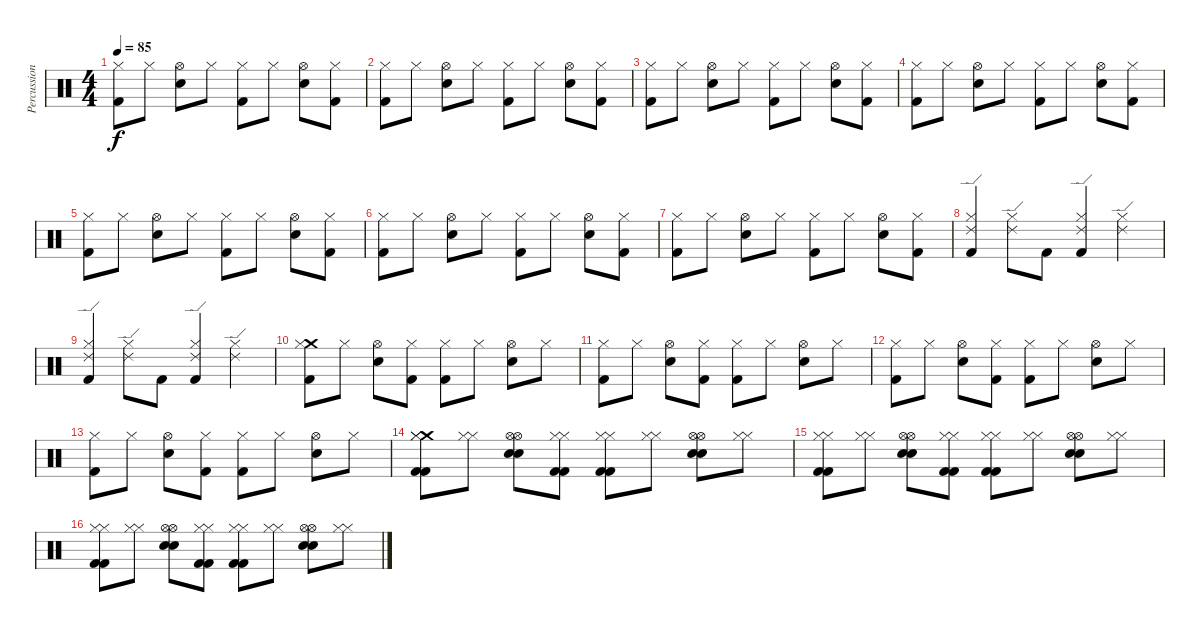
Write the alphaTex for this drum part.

\track ("Percussion" "Percussion") {instrument percussion}
\staff {score}
\articulation defaults
\ts (4 4)
\tempo 85
\clef neutral
\ks c
("Kick (hit) 2" "Hi-Hat (closed)").8{dy f} "Hi-Hat (closed)".8 ("Hi-Hat (open)" "Electric Snare (hit)").8 "Hi-Hat (closed)".8 ("Kick (hit) 2" "Hi-Hat (closed)").8 "Hi-Hat (closed)".8 ("Hi-Hat (open)" "Electric Snare (hit)").8 ("Kick (hit) 2" "Hi-Hat (closed)").8 |
("Kick (hit) 2" "Hi-Hat (closed)").8 "Hi-Hat (closed)".8 ("Hi-Hat (open)" "Electric Snare (hit)").8 "Hi-Hat (closed)".8 ("Kick (hit) 2" "Hi-Hat (closed)").8 "Hi-Hat (closed)".8 ("Hi-Hat (open)" "Electric Snare (hit)").8 ("Kick (hit) 2" "Hi-Hat (closed)").8 |
("Kick (hit) 2" "Hi-Hat (closed)").8 "Hi-Hat (closed)".8 ("Hi-Hat (open)" "Electric Snare (hit)").8 "Hi-Hat (closed)".8 ("Kick (hit) 2" "Hi-Hat (closed)").8 "Hi-Hat (closed)".8 ("Hi-Hat (open)" "Electric Snare (hit)").8 ("Kick (hit) 2" "Hi-Hat (closed)").8 |
("Kick (hit) 2" "Hi-Hat (closed)").8 "Hi-Hat (closed)".8 ("Hi-Hat (open)" "Electric Snare (hit)").8 "Hi-Hat (closed)".8 ("Kick (hit) 2" "Hi-Hat (closed)").8 "Hi-Hat (closed)".8 ("Hi-Hat (open)" "Electric Snare (hit)").8 ("Kick (hit) 2" "Hi-Hat (closed)").8 |
("Kick (hit) 2" "Hi-Hat (closed)").8 "Hi-Hat (closed)".8 ("Hi-Hat (open)" "Electric Snare (hit)").8 "Hi-Hat (closed)".8 ("Kick (hit) 2" "Hi-Hat (closed)").8 "Hi-Hat (closed)".8 ("Hi-Hat (open)" "Electric Snare (hit)").8 ("Kick (hit) 2" "Hi-Hat (closed)").8 |
("Kick (hit) 2" "Hi-Hat (closed)").8 "Hi-Hat (closed)".8 ("Hi-Hat (open)" "Electric Snare (hit)").8 "Hi-Hat (closed)".8 ("Kick (hit) 2" "Hi-Hat (closed)").8 "Hi-Hat (closed)".8 ("Hi-Hat (open)" "Electric Snare (hit)").8 ("Kick (hit) 2" "Hi-Hat (closed)").8 |
("Kick (hit) 2" "Hi-Hat (closed)").8 "Hi-Hat (closed)".8 ("Hi-Hat (open)" "Electric Snare (hit)").8 "Hi-Hat (closed)".8 ("Kick (hit) 2" "Hi-Hat (closed)").8 "Hi-Hat (closed)".8 ("Hi-Hat (open)" "Electric Snare (hit)").8 ("Kick (hit) 2" "Hi-Hat (closed)").8 |
("Ride (edge) 2" "Kick (hit) 2" "Hi-Hat (closed)").4 ("Ride (edge) 2" "Hi-Hat (closed)").8 "Kick (hit) 2".8 ("Ride (edge) 2" "Kick (hit) 2" "Hi-Hat (closed)").4 ("Ride (edge) 2" "Hi-Hat (closed)").4 |
("Ride (edge) 2" "Kick (hit) 2" "Hi-Hat (closed)").4 ("Ride (edge) 2" "Hi-Hat (closed)").8 "Kick (hit) 2".8 ("Ride (edge) 2" "Kick (hit) 2" "Hi-Hat (closed)").4 ("Ride (edge) 2" "Hi-Hat (closed)").4 |
("Crash medium (hit)" "Kick (hit) 2" "Hi-Hat (closed)").8 "Hi-Hat (closed)".8 ("Hi-Hat (open)" "Electric Snare (hit)").8 ("Kick (hit) 2" "Hi-Hat (closed)").8 ("Kick (hit) 2" "Hi-Hat (closed)").8 "Hi-Hat (closed)".8 ("Hi-Hat (open)" "Electric Snare (hit)").8 "Hi-Hat (closed)".8 |
("Kick (hit) 2" "Hi-Hat (closed)").8 "Hi-Hat (closed)".8 ("Hi-Hat (open)" "Electric Snare (hit)").8 ("Kick (hit) 2" "Hi-Hat (closed)").8 ("Kick (hit) 2" "Hi-Hat (closed)").8 "Hi-Hat (closed)".8 ("Hi-Hat (open)" "Electric Snare (hit)").8 "Hi-Hat (closed)".8 |
("Kick (hit) 2" "Hi-Hat (closed)").8 "Hi-Hat (closed)".8 ("Hi-Hat (open)" "Electric Snare (hit)").8 ("Kick (hit) 2" "Hi-Hat (closed)").8 ("Kick (hit) 2" "Hi-Hat (closed)").8 "Hi-Hat (closed)".8 ("Hi-Hat (open)" "Electric Snare (hit)").8 "Hi-Hat (closed)".8 |
("Kick (hit) 2" "Hi-Hat (closed)").8 "Hi-Hat (closed)".8 ("Hi-Hat (open)" "Electric Snare (hit)").8 ("Kick (hit) 2" "Hi-Hat (closed)").8 ("Kick (hit) 2" "Hi-Hat (closed)").8 "Hi-Hat (closed)".8 ("Hi-Hat (open)" "Electric Snare (hit)").8 "Hi-Hat (closed)".8 |
("Crash medium (hit)" "Kick (hit) 2" "Hi-Hat (closed)" "Kick (hit) 2" "Hi-Hat (closed)").8 ("Hi-Hat (closed)" "Hi-Hat (closed)").8 ("Hi-Hat (open)" "Electric Snare (hit)" "Hi-Hat (open)" "Electric Snare (hit)").8 ("Kick (hit) 2" "Hi-Hat (closed)" "Kick (hit) 2" "Hi-Hat (closed)").8 ("Kick (hit) 2" "Hi-Hat (closed)" "Kick (hit) 2" "Hi-Hat (closed)").8 ("Hi-Hat (closed)" "Hi-Hat (closed)").8 ("Hi-Hat (open)" "Electric Snare (hit)" "Hi-Hat (open)" "Electric Snare (hit)").8 ("Hi-Hat (closed)" "Hi-Hat (closed)").8 |
("Kick (hit) 2" "Hi-Hat (closed)" "Kick (hit) 2" "Hi-Hat (closed)").8 ("Hi-Hat (closed)" "Hi-Hat (closed)").8 ("Hi-Hat (open)" "Electric Snare (hit)" "Hi-Hat (open)" "Electric Snare (hit)").8 ("Kick (hit) 2" "Hi-Hat (closed)" "Kick (hit) 2" "Hi-Hat (closed)").8 ("Kick (hit) 2" "Hi-Hat (closed)" "Kick (hit) 2" "Hi-Hat (closed)").8 ("Hi-Hat (closed)" "Hi-Hat (closed)").8 ("Hi-Hat (open)" "Electric Snare (hit)" "Hi-Hat (open)" "Electric Snare (hit)").8 ("Hi-Hat (closed)" "Hi-Hat (closed)").8 |
("Kick (hit) 2" "Hi-Hat (closed)" "Kick (hit) 2" "Hi-Hat (closed)").8 ("Hi-Hat (closed)" "Hi-Hat (closed)").8 ("Hi-Hat (open)" "Electric Snare (hit)" "Hi-Hat (open)" "Electric Snare (hit)").8 ("Kick (hit) 2" "Hi-Hat (closed)" "Kick (hit) 2" "Hi-Hat (closed)").8 ("Kick (hit) 2" "Hi-Hat (closed)" "Kick (hit) 2" "Hi-Hat (closed)").8 ("Hi-Hat (closed)" "Hi-Hat (closed)").8 ("Hi-Hat (open)" "Electric Snare (hit)" "Hi-Hat (open)" "Electric Snare (hit)").8 ("Hi-Hat (closed)" "Hi-Hat (closed)").8
